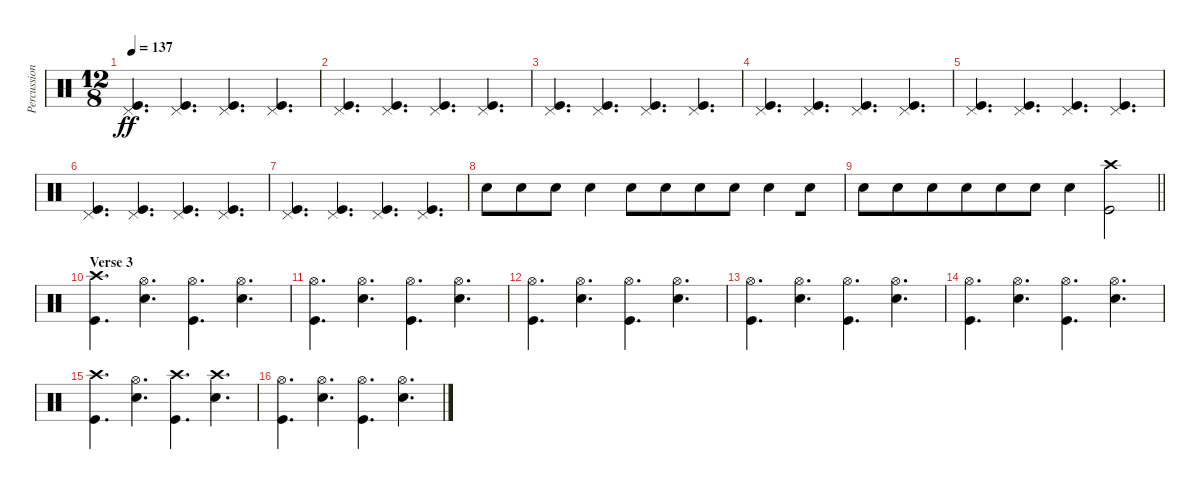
\track ("Percussion" "Percussion") {instrument percussion bank 255}
\staff {score}
\articulation defaults
\ts (12 8)
\tempo 137
\clef neutral
\ks c
("Kick (hit)" "Pedal Hi-Hat (hit)").4{d dy ff} ("Pedal Hi-Hat (hit)" "Kick (hit)").4{d} ("Pedal Hi-Hat (hit)" "Kick (hit)").4{d} ("Pedal Hi-Hat (hit)" "Kick (hit)").4{d} |
("Kick (hit)" "Pedal Hi-Hat (hit)").4{d} ("Pedal Hi-Hat (hit)" "Kick (hit)").4{d} ("Pedal Hi-Hat (hit)" "Kick (hit)").4{d} ("Pedal Hi-Hat (hit)" "Kick (hit)").4{d} |
("Kick (hit)" "Pedal Hi-Hat (hit)").4{d} ("Pedal Hi-Hat (hit)" "Kick (hit)").4{d} ("Pedal Hi-Hat (hit)" "Kick (hit)").4{d} ("Pedal Hi-Hat (hit)" "Kick (hit)").4{d} |
("Kick (hit)" "Pedal Hi-Hat (hit)").4{d} ("Pedal Hi-Hat (hit)" "Kick (hit)").4{d} ("Pedal Hi-Hat (hit)" "Kick (hit)").4{d} ("Pedal Hi-Hat (hit)" "Kick (hit)").4{d} |
("Kick (hit)" "Pedal Hi-Hat (hit)").4{d} ("Pedal Hi-Hat (hit)" "Kick (hit)").4{d} ("Pedal Hi-Hat (hit)" "Kick (hit)").4{d} ("Pedal Hi-Hat (hit)" "Kick (hit)").4{d} |
("Kick (hit)" "Pedal Hi-Hat (hit)").4{d} ("Pedal Hi-Hat (hit)" "Kick (hit)").4{d} ("Pedal Hi-Hat (hit)" "Kick (hit)").4{d} ("Pedal Hi-Hat (hit)" "Kick (hit)").4{d} |
("Kick (hit)" "Pedal Hi-Hat (hit)").4{d} ("Pedal Hi-Hat (hit)" "Kick (hit)").4{d} ("Pedal Hi-Hat (hit)" "Kick (hit)").4{d} ("Pedal Hi-Hat (hit)" "Kick (hit)").4{d} |
"Electric Snare (hit)".8 "Electric Snare (hit)".8 "Electric Snare (hit)".8 "Electric Snare (hit)".4 "Electric Snare (hit)".8{beam merge} "Electric Snare (hit)".8{beam merge} "Electric Snare (hit)".8 "Electric Snare (hit)".8 "Electric Snare (hit)".4{beam merge} "Electric Snare (hit)".8 |
\barLineRight lightlight "Electric Snare (hit)".8 "Electric Snare (hit)".8 "Electric Snare (hit)".8{beam merge} "Electric Snare (hit)".8 "Electric Snare (hit)".8{beam merge} "Electric Snare (hit)".8{beam merge} "Electric Snare (hit)".4
("Kick (hit)" "Crash high (hit)").2 |
\section ("" "Verse 3")
("Kick (hit)" "Crash high (hit)").4{d} ("Hi-Hat (open)" "Electric Snare (hit)").4{d} ("Hi-Hat (open)" "Kick (hit)").4{d} ("Hi-Hat (open)" "Electric Snare (hit)").4{d} |
("Kick (hit)" "Hi-Hat (open)").4{d} ("Hi-Hat (open)" "Electric Snare (hit)").4{d} ("Hi-Hat (open)" "Kick (hit)").4{d} ("Hi-Hat (open)" "Electric Snare (hit)").4{d} |
("Kick (hit)" "Hi-Hat (open)").4{d} ("Hi-Hat (open)" "Electric Snare (hit)").4{d} ("Hi-Hat (open)" "Kick (hit)").4{d} ("Hi-Hat (open)" "Electric Snare (hit)").4{d} |
("Kick (hit)" "Hi-Hat (open)").4{d} ("Hi-Hat (open)" "Electric Snare (hit)").4{d} ("Hi-Hat (open)" "Kick (hit)").4{d} ("Hi-Hat (open)" "Electric Snare (hit)").4{d} |
("Kick (hit)" "Hi-Hat (open)").4{d} ("Hi-Hat (open)" "Electric Snare (hit)").4{d} ("Hi-Hat (open)" "Kick (hit)").4{d} ("Hi-Hat (open)" "Electric Snare (hit)").4{d} |
("Kick (hit)" "Crash high (hit)").4{d} ("Hi-Hat (open)" "Electric Snare (hit)").4{d} ("Crash high (hit)" "Kick (hit)").4{d} ("Crash high (hit)" "Electric Snare (hit)").4{d} |
("Kick (hit)" "Hi-Hat (open)").4{d} ("Hi-Hat (open)" "Electric Snare (hit)").4{d} ("Hi-Hat (open)" "Kick (hit)").4{d} ("Hi-Hat (open)" "Electric Snare (hit)").4{d}
